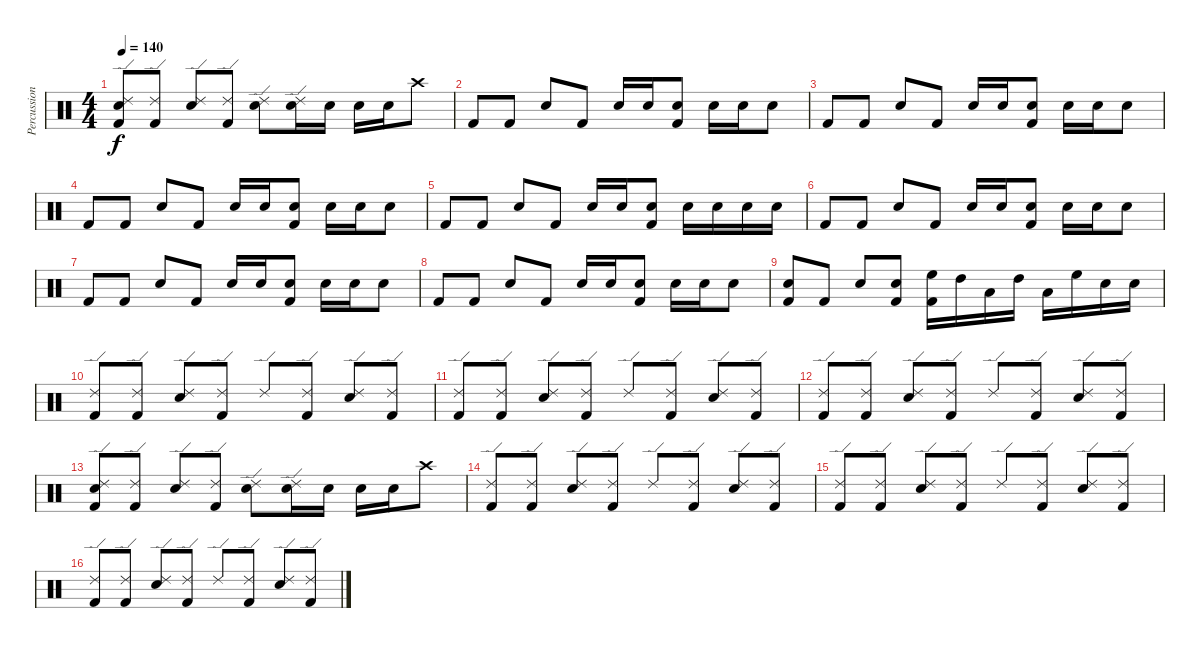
\track ("Percussion" "Percussion") {instrument percussion}
\staff {score}
\articulation defaults
\ts (4 4)
\tempo 140
\clef neutral
\ks c
("Kick (hit) 2" "Snare (hit) 2" "Ride (edge) 2").8{dy f} ("Kick (hit) 2" "Ride (edge) 2").8 ("Snare (hit) 2" "Ride (edge) 2").8 ("Kick (hit) 2" "Ride (edge) 2").8 ("Snare (hit) 2" "Ride (edge) 2").8 ("Snare (hit) 2" "Ride (edge) 2").16 "Snare (hit) 2".16 "Snare (hit) 2".16 "Snare (hit) 2".16 "Crash high (hit)".8 |
"Kick (hit) 2".8 "Kick (hit) 2".8 "Snare (hit) 2".8 "Kick (hit) 2".8 "Snare (hit) 2".16 "Electric Snare (hit)".16 ("Kick (hit) 2" "Snare (hit) 2").8 "Snare (hit) 2".16 "Electric Snare (hit)".16 "Snare (hit) 2".8 |
"Kick (hit) 2".8 "Kick (hit) 2".8 "Snare (hit) 2".8 "Kick (hit) 2".8 "Snare (hit) 2".16 "Electric Snare (hit)".16 ("Kick (hit) 2" "Snare (hit) 2").8 "Snare (hit) 2".16 "Electric Snare (hit)".16 "Snare (hit) 2".8 |
"Kick (hit) 2".8 "Kick (hit) 2".8 "Snare (hit) 2".8 "Kick (hit) 2".8 "Snare (hit) 2".16 "Electric Snare (hit)".16 ("Kick (hit) 2" "Snare (hit) 2").8 "Snare (hit) 2".16 "Electric Snare (hit)".16 "Snare (hit) 2".8 |
"Kick (hit) 2".8 "Kick (hit) 2".8 "Snare (hit) 2".8 "Kick (hit) 2".8 "Snare (hit) 2".16 "Electric Snare (hit)".16 ("Kick (hit) 2" "Snare (hit) 2").8 "Snare (hit) 2".16 "Electric Snare (hit)".16 "Snare (hit) 2".16 "Electric Snare (hit)".16 |
"Kick (hit) 2".8 "Kick (hit) 2".8 "Snare (hit) 2".8 "Kick (hit) 2".8 "Snare (hit) 2".16 "Electric Snare (hit)".16 ("Kick (hit) 2" "Snare (hit) 2").8 "Snare (hit) 2".16 "Electric Snare (hit)".16 "Snare (hit) 2".8 |
"Kick (hit) 2".8 "Kick (hit) 2".8 "Snare (hit) 2".8 "Kick (hit) 2".8 "Snare (hit) 2".16 "Electric Snare (hit)".16 ("Kick (hit) 2" "Snare (hit) 2").8 "Snare (hit) 2".16 "Electric Snare (hit)".16 "Snare (hit) 2".8 |
"Kick (hit) 2".8 "Kick (hit) 2".8 "Snare (hit) 2".8 "Kick (hit) 2".8 "Snare (hit) 2".16 "Electric Snare (hit)".16 ("Kick (hit) 2" "Snare (hit) 2").8 "Snare (hit) 2".16 "Electric Snare (hit)".16 "Snare (hit) 2".8 |
("Kick (hit) 2" "Snare (hit) 2").8 "Kick (hit) 2".8 "Snare (hit) 2".8 ("Kick (hit) 2" "Electric Snare (hit)").8 ("Kick (hit) 2" "High Floor Tom (hit)").16 "High Tom (hit)".16 "Low Tom (hit)".16 "High Tom (hit)".16 "Low Tom (hit)".16 "High Floor Tom (hit)".16 "Snare (hit) 2".16 "Electric Snare (hit)".16 |
("Kick (hit) 2" "Ride (edge) 2").8 ("Kick (hit) 2" "Ride (edge) 2").8 ("Snare (hit) 2" "Ride (edge) 2").8 ("Kick (hit) 2" "Ride (edge) 2").8 "Ride (edge) 2".8 ("Kick (hit) 2" "Ride (edge) 2").8 ("Snare (hit) 2" "Ride (edge) 2").8 ("Kick (hit) 2" "Ride (edge) 2").8 |
("Kick (hit) 2" "Ride (edge) 2").8 ("Kick (hit) 2" "Ride (edge) 2").8 ("Snare (hit) 2" "Ride (edge) 2").8 ("Kick (hit) 2" "Ride (edge) 2").8 "Ride (edge) 2".8 ("Kick (hit) 2" "Ride (edge) 2").8 ("Snare (hit) 2" "Ride (edge) 2").8 ("Kick (hit) 2" "Ride (edge) 2").8 |
("Kick (hit) 2" "Ride (edge) 2").8 ("Kick (hit) 2" "Ride (edge) 2").8 ("Snare (hit) 2" "Ride (edge) 2").8 ("Kick (hit) 2" "Ride (edge) 2").8 "Ride (edge) 2".8 ("Kick (hit) 2" "Ride (edge) 2").8 ("Snare (hit) 2" "Ride (edge) 2").8 ("Kick (hit) 2" "Ride (edge) 2").8 |
("Kick (hit) 2" "Snare (hit) 2" "Ride (edge) 2").8 ("Kick (hit) 2" "Ride (edge) 2").8 ("Snare (hit) 2" "Ride (edge) 2").8 ("Kick (hit) 2" "Ride (edge) 2").8 ("Snare (hit) 2" "Ride (edge) 2").8 ("Snare (hit) 2" "Ride (edge) 2").16 "Snare (hit) 2".16 "Snare (hit) 2".16 "Snare (hit) 2".16 "Crash high (hit)".8 |
("Kick (hit) 2" "Ride (edge) 2").8 ("Kick (hit) 2" "Ride (edge) 2").8 ("Snare (hit) 2" "Ride (edge) 2").8 ("Kick (hit) 2" "Ride (edge) 2").8 "Ride (edge) 2".8 ("Kick (hit) 2" "Ride (edge) 2").8 ("Snare (hit) 2" "Ride (edge) 2").8 ("Kick (hit) 2" "Ride (edge) 2").8 |
("Kick (hit) 2" "Ride (edge) 2").8 ("Kick (hit) 2" "Ride (edge) 2").8 ("Snare (hit) 2" "Ride (edge) 2").8 ("Kick (hit) 2" "Ride (edge) 2").8 "Ride (edge) 2".8 ("Kick (hit) 2" "Ride (edge) 2").8 ("Snare (hit) 2" "Ride (edge) 2").8 ("Kick (hit) 2" "Ride (edge) 2").8 |
("Kick (hit) 2" "Ride (edge) 2").8 ("Kick (hit) 2" "Ride (edge) 2").8 ("Snare (hit) 2" "Ride (edge) 2").8 ("Kick (hit) 2" "Ride (edge) 2").8 "Ride (edge) 2".8 ("Kick (hit) 2" "Ride (edge) 2").8 ("Snare (hit) 2" "Ride (edge) 2").8 ("Kick (hit) 2" "Ride (edge) 2").8
